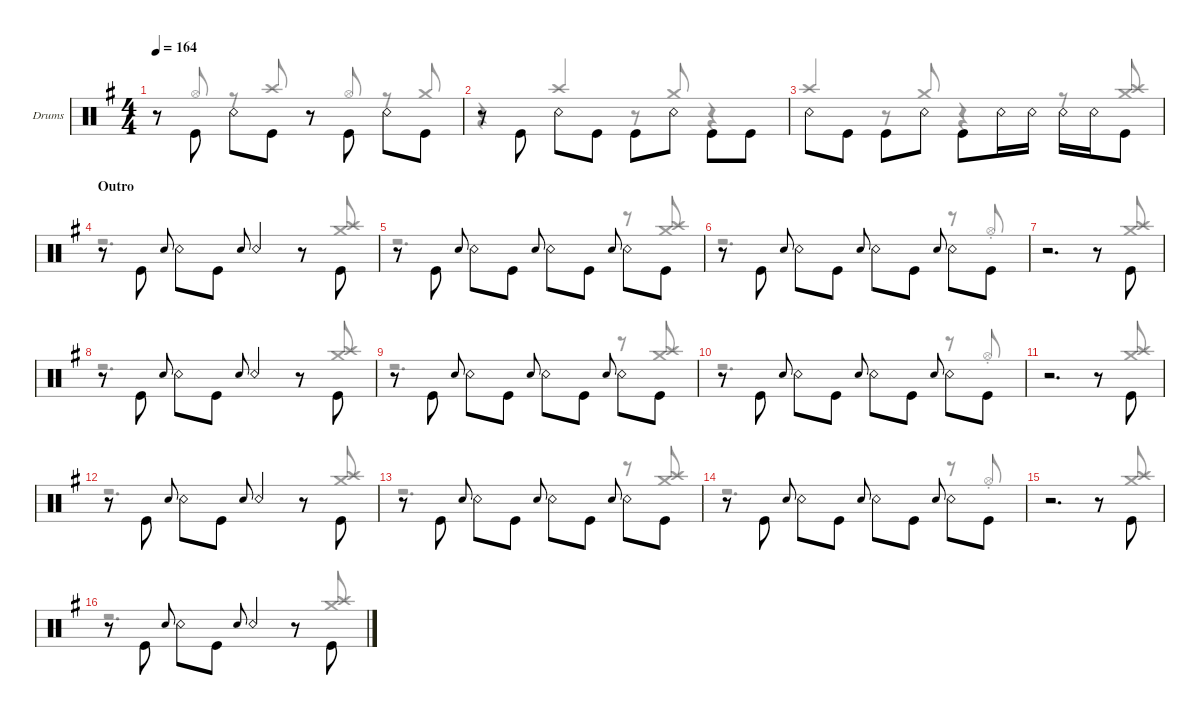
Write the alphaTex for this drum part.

\defaultSystemsLayout 4
\hideDynamics
\bracketExtendMode groupsimilarinstruments
\firstSystemTrackNameOrientation horizontal
\otherSystemsTrackNameOrientation horizontal
\track ("Drumkit" "Drums") {multiBarRest instrument percussion}
\staff {score}
\articulation defaults
\voice
\ts (4 4)
\tempo 164
\clef neutral
\ks eminor
r.8{dy ff} "Kick (hit)".8{beam invert} "Snare (rim shot)".8{beam invert} "Kick (hit)".8 r.8{beam invert} "Kick (hit)".8{beam invert} "Snare (rim shot)".8{beam invert} "Kick (hit)".8 |
r.8{beam invert} "Kick (hit)".8{beam invert} "Snare (rim shot)".8{beam invert} "Kick (hit)".8 "Kick (hit)".8{beam invert} "Snare (rim shot)".8 "Kick (hit)".8{beam invert} "Kick (hit)".8 |
"Snare (rim shot)".8{beam invert} "Kick (hit)".8 "Kick (hit)".8{beam invert} "Snare (rim shot)".8 "Kick (hit)".8{beam invert} "Snare (rim shot)".16 "Snare (rim shot)".16 "Snare (rim shot)".16{beam invert} "Snare (rim shot)".16 "Kick (hit)".8 |
\section ("" "Outro")
r.8 "Kick (hit)".8{beam invert} "Snare (hit) 2".8{gr onbeat} "Snare (rim shot)".8{beam invert} "Kick (hit)".8 "Snare (hit) 2".8{gr onbeat} "Snare (rim shot)".4 r.8 "Kick (hit)".8{beam invert} |
r.8 "Kick (hit)".8{beam invert} "Snare (hit) 2".8{gr onbeat} "Snare (rim shot)".8{beam invert} "Kick (hit)".8 "Snare (hit) 2".8{gr onbeat} "Snare (rim shot)".8{beam invert} "Kick (hit)".8 "Snare (hit) 2".8{gr onbeat} "Snare (rim shot)".8{beam invert} "Kick (hit)".8 |
r.8 "Kick (hit)".8{beam invert} "Snare (hit) 2".8{gr onbeat} "Snare (rim shot)".8{beam invert} "Kick (hit)".8 "Snare (hit) 2".8{gr onbeat} "Snare (rim shot)".8{beam invert} "Kick (hit)".8 "Snare (hit) 2".8{gr onbeat} "Snare (rim shot)".8{beam invert} "Kick (hit)".8 |
r.2{d} r.8{beam invert} "Kick (hit)".8{beam invert} |
r.8 "Kick (hit)".8{beam invert} "Snare (hit) 2".8{gr onbeat} "Snare (rim shot)".8{beam invert} "Kick (hit)".8 "Snare (hit) 2".8{gr onbeat} "Snare (rim shot)".4 r.8 "Kick (hit)".8{beam invert} |
r.8 "Kick (hit)".8{beam invert} "Snare (hit) 2".8{gr onbeat} "Snare (rim shot)".8{beam invert} "Kick (hit)".8 "Snare (hit) 2".8{gr onbeat} "Snare (rim shot)".8{beam invert} "Kick (hit)".8 "Snare (hit) 2".8{gr onbeat} "Snare (rim shot)".8{beam invert} "Kick (hit)".8 |
r.8 "Kick (hit)".8{beam invert} "Snare (hit) 2".8{gr onbeat} "Snare (rim shot)".8{beam invert} "Kick (hit)".8 "Snare (hit) 2".8{gr onbeat} "Snare (rim shot)".8{beam invert} "Kick (hit)".8 "Snare (hit) 2".8{gr onbeat} "Snare (rim shot)".8{beam invert} "Kick (hit)".8 |
r.2{d} r.8{beam invert} "Kick (hit)".8{beam invert} |
r.8 "Kick (hit)".8{beam invert} "Snare (hit) 2".8{gr onbeat} "Snare (rim shot)".8{beam invert} "Kick (hit)".8 "Snare (hit) 2".8{gr onbeat} "Snare (rim shot)".4 r.8 "Kick (hit)".8{beam invert} |
r.8 "Kick (hit)".8{beam invert} "Snare (hit) 2".8{gr onbeat} "Snare (rim shot)".8{beam invert} "Kick (hit)".8 "Snare (hit) 2".8{gr onbeat} "Snare (rim shot)".8{beam invert} "Kick (hit)".8 "Snare (hit) 2".8{gr onbeat} "Snare (rim shot)".8{beam invert} "Kick (hit)".8 |
r.8 "Kick (hit)".8{beam invert} "Snare (hit) 2".8{gr onbeat} "Snare (rim shot)".8{beam invert} "Kick (hit)".8 "Snare (hit) 2".8{gr onbeat} "Snare (rim shot)".8{beam invert} "Kick (hit)".8 "Snare (hit) 2".8{gr onbeat} "Snare (rim shot)".8{beam invert} "Kick (hit)".8 |
r.2{d} r.8{beam invert} "Kick (hit)".8{beam invert} |
r.8 "Kick (hit)".8{beam invert} "Snare (hit) 2".8{gr onbeat} "Snare (rim shot)".8{beam invert} "Kick (hit)".8 "Snare (hit) 2".8{gr onbeat} "Snare (rim shot)".4 r.8 "Kick (hit)".8{beam invert}
\voice
\clef neutral
\ottava regular
\simile none
\ks eminor
r.8{dy f beam invert} "Hi-Hat (open)".8{beam invert} r.8{beam invert} "Crash high (hit)".8{beam invert} r.8{beam invert} "Hi-Hat (open)".8{beam invert} r.8{beam invert} "Crash medium (hit)".8{beam invert} |
r.4 "Crash high (hit)".4{beam invert} r.8 "Crash medium (hit)".8{beam invert} r.4 |
"Crash high (hit)".4{beam invert} r.8 "Crash medium (hit)".8{beam invert} r.4 r.8 ("Crash medium (hit)" "Crash high (hit)").8{beam invert} |
r.2{d} r.8 ("Crash medium (hit)" "Crash high (hit)").8{dy ff beam invert} |
r.2{d} r.8 ("Crash medium (hit)" "Crash high (hit)").8{beam invert} |
r.2{d} r.8 "Hi-Hat (open)"{st}.8{beam invert} |
r.2{d} r.8 ("Crash medium (hit)" "Crash high (hit)").8{beam invert} |
r.2{d} r.8 ("Crash medium (hit)" "Crash high (hit)").8{beam invert} |
r.2{d} r.8 ("Crash medium (hit)" "Crash high (hit)").8{beam invert} |
r.2{d} r.8 "Hi-Hat (open)"{st}.8{beam invert} |
r.2{d} r.8 ("Crash medium (hit)" "Crash high (hit)").8{beam invert} |
r.2{d} r.8 ("Crash medium (hit)" "Crash high (hit)").8{beam invert} |
r.2{d} r.8 ("Crash medium (hit)" "Crash high (hit)").8{beam invert} |
r.2{d} r.8 "Hi-Hat (open)"{st}.8{beam invert} |
r.2{d} r.8 ("Crash medium (hit)" "Crash high (hit)").8{beam invert} |
r.2{d} r.8 ("Crash medium (hit)" "Crash high (hit)").8{beam invert}
